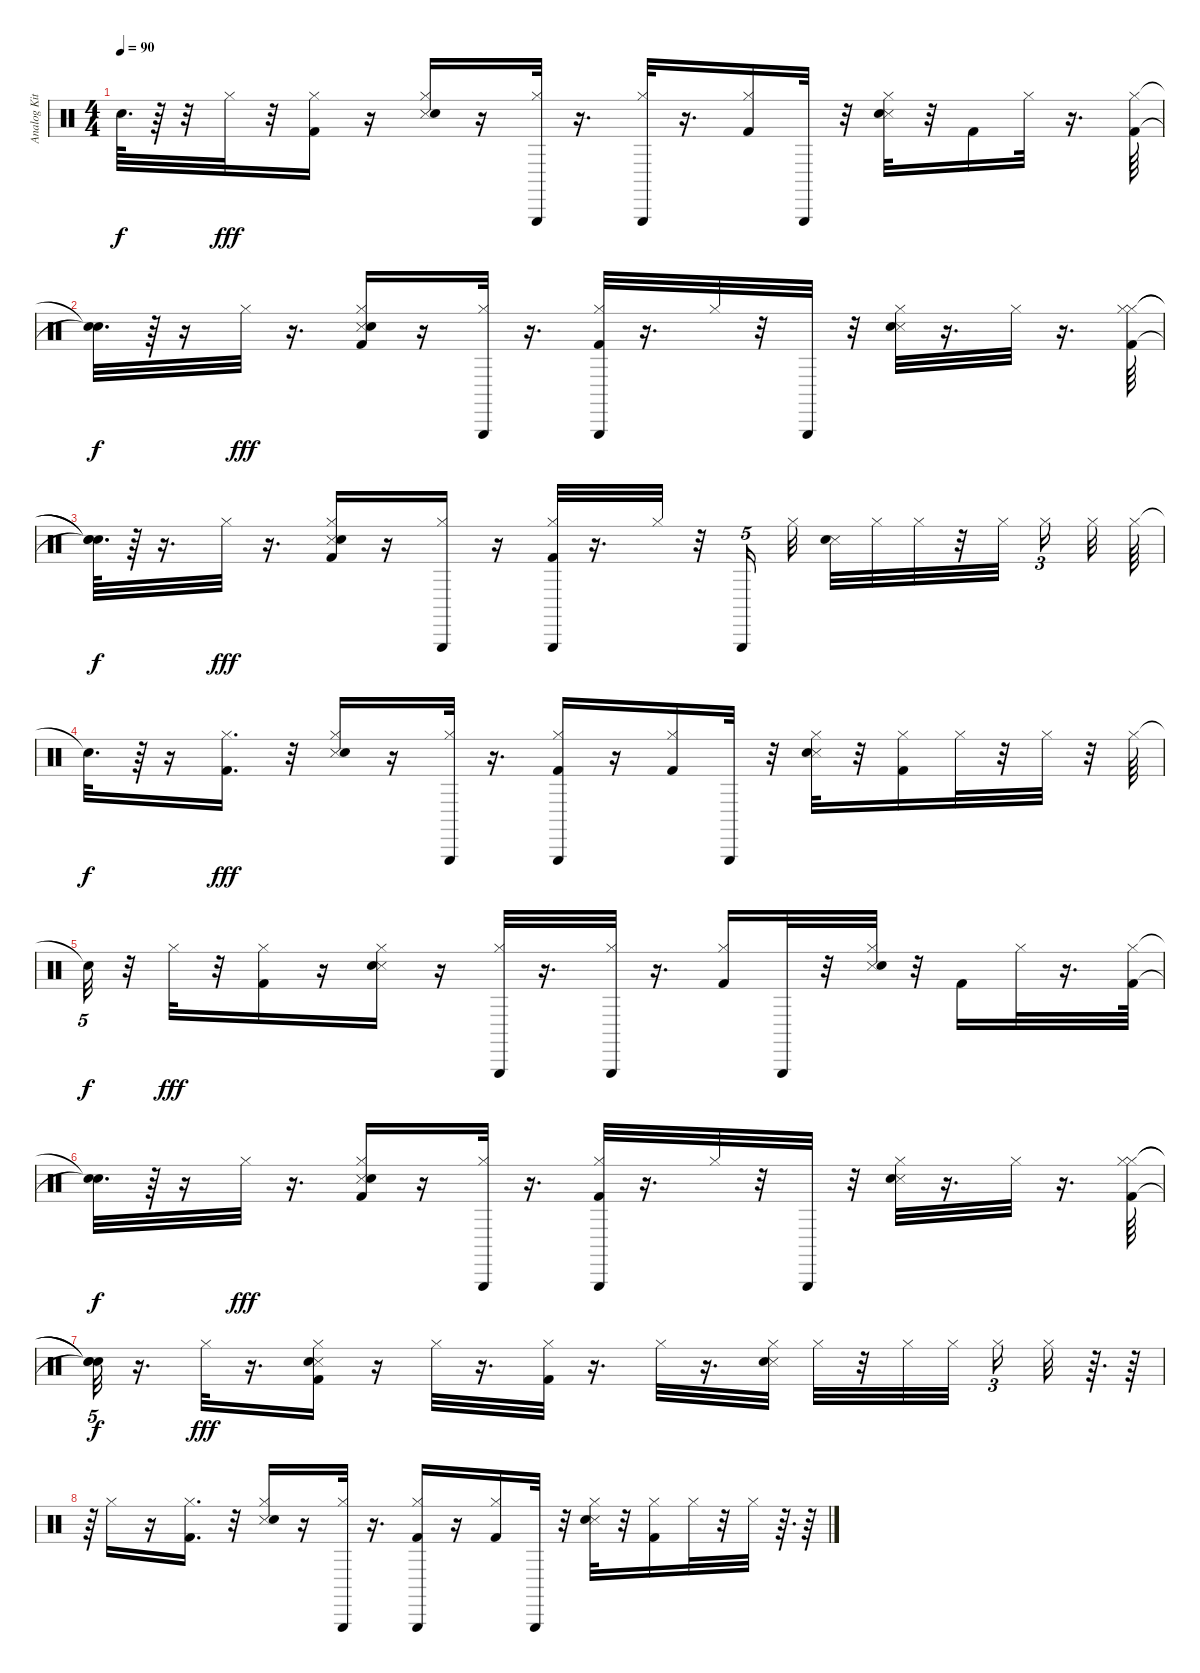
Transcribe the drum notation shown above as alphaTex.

\track ("Analog Kit" "Analog Kit") {instrument percussion}
\staff {score}
\articulation defaults
\ts (4 4)
\tempo 90
\clef neutral
\ks c "Snare (hit)"{t}.64{d dy f}
r.64 r.32 "Hi-Hat (closed)".32{dy fff} r.32 ("Hi-Hat (closed)" "Kick (hit) 2").16 r.16 ("Snare (side stick) 3" "Electric Snare (hit)" "Hi-Hat (closed)").16 r.16 ("Hi-Hat (closed)" "Triangle (hit)").32 r.16{d} ("Hi-Hat (closed)" "Triangle (hit)").32 r.16{d} ("Kick (hit) 2" "Hi-Hat (closed)").16 "Triangle (hit)".32 r.32 ("Snare (side stick) 3" "Electric Snare (hit)" "Hi-Hat (closed)").32 r.32 "Kick (hit) 2".16 "Hi-Hat (closed)".32 r.16{d} ("Hi-Hat (closed)" "Kick (hit) 2").64 |
("Snare (hit)"{t} "Snare (hit)"{t}).32{d dy f} r.64 r.16 "Hi-Hat (closed)".32{dy fff} r.16{d} ("Snare (side stick) 3" "Kick (hit) 2" "Electric Snare (hit)" "Hi-Hat (closed)").16 r.16 ("Triangle (hit)" "Hi-Hat (closed)").32 r.16{d} ("Kick (hit) 2" "Hi-Hat (closed)" "Triangle (hit)").32 r.16{d} "Hi-Hat (closed)".32 r.32 "Triangle (hit)".32 r.32 ("Snare (side stick) 3" "Electric Snare (hit)" "Hi-Hat (closed)").32 r.16{d} "Hi-Hat (closed)".32 r.16{d} ("Hi-Hat (closed)" "Hi-Hat (closed)" "Kick (hit) 2").64 |
("Snare (hit)"{t} "Snare (hit)"{t} "Snare (hit)"{t}).64{d dy f} r.64 r.16{d} "Hi-Hat (closed)".32{dy fff} r.16{d} ("Hi-Hat (closed)" "Snare (side stick) 3" "Kick (hit) 2" "Electric Snare (hit)").16 r.16 ("Hi-Hat (closed)" "Triangle (hit)").16 r.16 ("Kick (hit) 2" "Hi-Hat (closed)" "Triangle (hit)").32 r.16{d} "Hi-Hat (closed)".32 r.32 "Triangle (hit)".16{tu (5 4)} "Hi-Hat (closed)".32 ("Snare (side stick) 3" "Electric Snare (hit)").32 "Hi-Hat (closed)".32 "Hi-Hat (closed)".32 r.32 "Hi-Hat (closed)".32{beam splitsecondary} "Hi-Hat (closed)".16{tu (3 2)} "Hi-Hat (closed)".32 "Hi-Hat (closed)".64 |
"Snare (hit)"{t}.32{d dy f} r.64 r.16 ("Kick (hit) 2" "Hi-Hat (closed)").16{d dy fff} r.32 ("Snare (side stick) 3" "Electric Snare (hit)" "Hi-Hat (closed)").16 r.16 ("Hi-Hat (closed)" "Triangle (hit)").32 r.16{d} ("Hi-Hat (closed)" "Kick (hit) 2" "Triangle (hit)").16 r.16 ("Kick (hit) 2" "Hi-Hat (closed)").16 "Triangle (hit)".32 r.32 ("Snare (side stick) 3" "Electric Snare (hit)" "Hi-Hat (closed)").32 r.32 ("Kick (hit) 2" "Hi-Hat (closed)").16 "Hi-Hat (closed)".32 r.32 "Hi-Hat (closed)".32 r.32 "Hi-Hat (closed)".64 |
"Snare (hit)"{t}.32{tu (5 4) dy f} r.32 "Hi-Hat (closed)".32{dy fff} r.32 ("Hi-Hat (closed)" "Kick (hit) 2").16 r.16 ("Snare (side stick) 3" "Electric Snare (hit)" "Hi-Hat (closed)").16 r.16 ("Hi-Hat (closed)" "Triangle (hit)").32 r.16{d} ("Hi-Hat (closed)" "Triangle (hit)").32 r.16{d} ("Kick (hit) 2" "Hi-Hat (closed)").16 "Triangle (hit)".32 r.32 ("Snare (side stick) 3" "Electric Snare (hit)" "Hi-Hat (closed)").32 r.32 "Kick (hit) 2".16 "Hi-Hat (closed)".32 r.16{d} ("Hi-Hat (closed)" "Kick (hit) 2").64 |
("Snare (hit)"{t} "Snare (hit)"{t}).32{d dy f} r.64 r.16 "Hi-Hat (closed)".32{dy fff} r.16{d} ("Snare (side stick) 3" "Kick (hit) 2" "Electric Snare (hit)" "Hi-Hat (closed)").16 r.16 ("Triangle (hit)" "Hi-Hat (closed)").32 r.16{d} ("Kick (hit) 2" "Hi-Hat (closed)" "Triangle (hit)").32 r.16{d} "Hi-Hat (closed)".32 r.32 "Triangle (hit)".32 r.32 ("Snare (side stick) 3" "Electric Snare (hit)" "Hi-Hat (closed)").32 r.16{d} "Hi-Hat (closed)".32 r.16{d} ("Hi-Hat (closed)" "Hi-Hat (closed)" "Kick (hit) 2").64 |
("Snare (hit)"{t} "Snare (hit)"{t} "Snare (hit)"{t}).32{tu (5 4) dy f} r.16{d} "Hi-Hat (closed)".32{dy fff} r.16{d} ("Hi-Hat (closed)" "Snare (side stick) 3" "Kick (hit) 2" "Electric Snare (hit)").16 r.16 "Hi-Hat (closed)".32 r.16{d} ("Kick (hit) 2" "Hi-Hat (closed)").32 r.16{d} "Hi-Hat (closed)".32 r.16{d} ("Hi-Hat (closed)" "Snare (side stick) 3" "Electric Snare (hit)").32 "Hi-Hat (closed)".32 r.32 "Hi-Hat (closed)".32 "Hi-Hat (closed)".32{beam splitsecondary} "Hi-Hat (closed)".16{tu (3 2)} "Hi-Hat (closed)".32 r.64{d} r.64 |
r.64 "Hi-Hat (closed)".16 r.16 ("Kick (hit) 2" "Hi-Hat (closed)").16{d} r.32 ("Snare (side stick) 3" "Electric Snare (hit)" "Hi-Hat (closed)").16 r.16 ("Hi-Hat (closed)" "Triangle (hit)").32 r.16{d} ("Hi-Hat (closed)" "Kick (hit) 2" "Triangle (hit)").16 r.16 ("Kick (hit) 2" "Hi-Hat (closed)").16 "Triangle (hit)".32 r.32 ("Snare (side stick) 3" "Electric Snare (hit)" "Hi-Hat (closed)").32 r.32 ("Kick (hit) 2" "Hi-Hat (closed)").16 "Hi-Hat (closed)".32 r.32 "Hi-Hat (closed)".32 r.64{d} r.64
